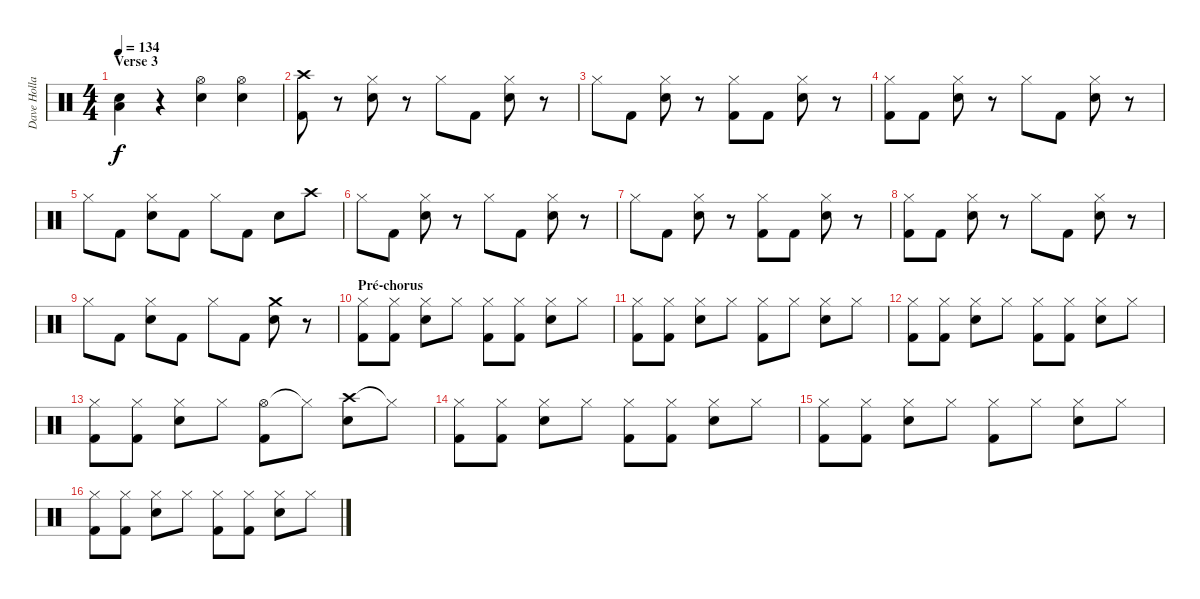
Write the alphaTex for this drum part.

\track ("Dave Holland" "Dave Holla") {instrument percussion}
\staff {score}
\articulation defaults
\ts (4 4)
\section ("" "Verse 3")
\tempo 134
\clef neutral
\ks c
("Snare (hit) 2" "Low Floor Tom (hit)").4{dy f} r.4 ("Hi-Hat (open)" "Snare (hit) 2").4 ("Hi-Hat (open)" "Snare (hit) 2").4 |
("Crash high (hit)" "Kick (hit) 2").8 r.8 ("Hi-Hat (closed)" "Snare (hit) 2").8 r.8 "Hi-Hat (closed)".8 "Kick (hit) 2".8 ("Hi-Hat (closed)" "Snare (hit) 2").8 r.8 |
"Hi-Hat (closed)".8 "Kick (hit) 2".8 ("Hi-Hat (closed)" "Snare (hit) 2").8 r.8 ("Hi-Hat (closed)" "Kick (hit) 2").8 "Kick (hit) 2".8 ("Hi-Hat (closed)" "Snare (hit) 2").8 r.8 |
("Hi-Hat (closed)" "Kick (hit) 2").8 "Kick (hit) 2".8 ("Hi-Hat (closed)" "Snare (hit) 2").8 r.8 "Hi-Hat (closed)".8 "Kick (hit) 2".8 ("Hi-Hat (closed)" "Snare (hit) 2").8 r.8 |
"Hi-Hat (closed)".8 "Kick (hit) 2".8 ("Hi-Hat (closed)" "Snare (hit) 2").8 "Kick (hit) 2".8 "Hi-Hat (closed)".8 "Kick (hit) 2".8 "Snare (hit) 2".8 "Crash high (hit)".8 |
"Hi-Hat (closed)".8 "Kick (hit) 2".8 ("Hi-Hat (closed)" "Snare (hit) 2").8 r.8 "Hi-Hat (closed)".8 "Kick (hit) 2".8 ("Hi-Hat (closed)" "Snare (hit) 2").8 r.8 |
"Hi-Hat (closed)".8 "Kick (hit) 2".8 ("Hi-Hat (closed)" "Snare (hit) 2").8 r.8 ("Hi-Hat (closed)" "Kick (hit) 2").8 "Kick (hit) 2".8 ("Hi-Hat (closed)" "Snare (hit) 2").8 r.8 |
("Hi-Hat (closed)" "Kick (hit) 2").8 "Kick (hit) 2".8 ("Hi-Hat (closed)" "Snare (hit) 2").8 r.8 "Hi-Hat (closed)".8 "Kick (hit) 2".8 ("Hi-Hat (closed)" "Snare (hit) 2").8 r.8 |
"Hi-Hat (closed)".8 "Kick (hit) 2".8 ("Hi-Hat (closed)" "Snare (hit) 2").8 "Kick (hit) 2".8 "Hi-Hat (closed)".8 "Kick (hit) 2".8 ("Crash medium (hit)" "Snare (hit) 2").8 r.8 |
\section ("" "Pré-chorus")
("Hi-Hat (closed)" "Kick (hit) 2").8 ("Hi-Hat (closed)" "Kick (hit) 2").8 ("Hi-Hat (closed)" "Snare (hit) 2").8 "Hi-Hat (closed)".8 ("Hi-Hat (closed)" "Kick (hit) 2").8 ("Hi-Hat (closed)" "Kick (hit) 2").8 ("Hi-Hat (closed)" "Snare (hit) 2").8 "Hi-Hat (closed)".8 |
("Hi-Hat (closed)" "Kick (hit) 2").8 ("Hi-Hat (closed)" "Kick (hit) 2").8 ("Hi-Hat (closed)" "Snare (hit) 2").8 "Hi-Hat (closed)".8 ("Hi-Hat (closed)" "Kick (hit) 2").8 "Hi-Hat (closed)".8 ("Hi-Hat (closed)" "Snare (hit) 2").8 "Hi-Hat (closed)".8 |
("Hi-Hat (closed)" "Kick (hit) 2").8 ("Hi-Hat (closed)" "Kick (hit) 2").8 ("Hi-Hat (closed)" "Snare (hit) 2").8 "Hi-Hat (closed)".8 ("Hi-Hat (closed)" "Kick (hit) 2").8 ("Hi-Hat (closed)" "Kick (hit) 2").8 ("Hi-Hat (closed)" "Snare (hit) 2").8 "Hi-Hat (closed)".8 |
("Hi-Hat (closed)" "Kick (hit) 2").8 ("Hi-Hat (closed)" "Kick (hit) 2").8 ("Hi-Hat (closed)" "Snare (hit) 2").8 "Hi-Hat (closed)".8 ("Hi-Hat (open)" "Kick (hit) 2").8 "Hi-Hat (closed)"{t}.8 ("Crash high (hit)" "Snare (hit) 2").8 "Hi-Hat (closed)"{t}.8 |
("Hi-Hat (closed)" "Kick (hit) 2").8 ("Hi-Hat (closed)" "Kick (hit) 2").8 ("Hi-Hat (closed)" "Snare (hit) 2").8 "Hi-Hat (closed)".8 ("Hi-Hat (closed)" "Kick (hit) 2").8 ("Hi-Hat (closed)" "Kick (hit) 2").8 ("Hi-Hat (closed)" "Snare (hit) 2").8 "Hi-Hat (closed)".8 |
("Hi-Hat (closed)" "Kick (hit) 2").8 ("Hi-Hat (closed)" "Kick (hit) 2").8 ("Hi-Hat (closed)" "Snare (hit) 2").8 "Hi-Hat (closed)".8 ("Hi-Hat (closed)" "Kick (hit) 2").8 "Hi-Hat (closed)".8 ("Hi-Hat (closed)" "Snare (hit) 2").8 "Hi-Hat (closed)".8 |
("Hi-Hat (closed)" "Kick (hit) 2").8 ("Hi-Hat (closed)" "Kick (hit) 2").8 ("Hi-Hat (closed)" "Snare (hit) 2").8 "Hi-Hat (closed)".8 ("Hi-Hat (closed)" "Kick (hit) 2").8 ("Hi-Hat (closed)" "Kick (hit) 2").8 ("Hi-Hat (closed)" "Snare (hit) 2").8 "Hi-Hat (closed)".8
